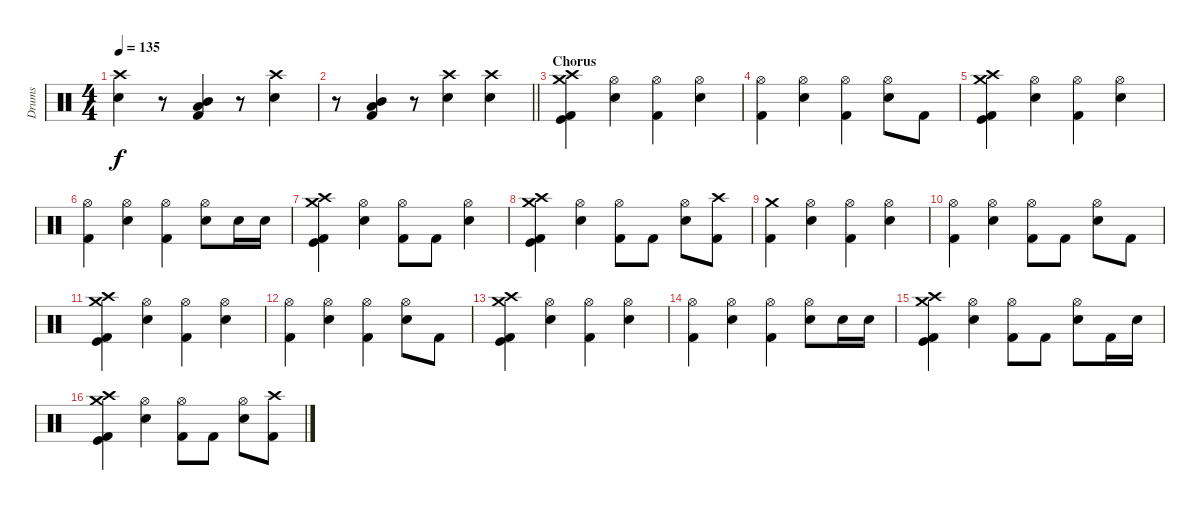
\track ("Drums" "Drums") {instrument percussion}
\staff {score}
\articulation defaults
\ts (4 4)
\tempo 135
\clef neutral
\ks c
("Crash high (hit)" "Snare (hit) 2").4{dy f} r.8 ("Kick (hit) 2" "Mid Tom (hit)" "Low Tom (hit)").4 r.8 ("Crash high (hit)" "Snare (hit) 2").4 |
\barLineRight lightlight
r.8 ("Kick (hit) 2" "Mid Tom (hit)" "Low Tom (hit)").4 r.8 ("Crash high (hit)" "Snare (hit) 2").4 ("Crash high (hit)" "Snare (hit) 2").4 |
\section ("" "Chorus")
("Crash high (hit)" "Crash medium (hit)" "Kick (hit) 2" "Kick (hit)").4 ("Hi-Hat (open)" "Snare (hit) 2").4 ("Hi-Hat (open)" "Kick (hit) 2").4 ("Hi-Hat (open)" "Snare (hit) 2").4 |
("Hi-Hat (open)" "Kick (hit) 2").4 ("Hi-Hat (open)" "Snare (hit) 2").4 ("Hi-Hat (open)" "Kick (hit) 2").4 ("Hi-Hat (open)" "Snare (hit) 2").8 "Kick (hit) 2".8 |
("Crash medium (hit)" "Crash high (hit)" "Kick (hit)" "Kick (hit) 2").4 ("Hi-Hat (open)" "Snare (hit) 2").4 ("Hi-Hat (open)" "Kick (hit) 2").4 ("Hi-Hat (open)" "Snare (hit) 2").4 |
("Hi-Hat (open)" "Kick (hit) 2").4 ("Hi-Hat (open)" "Snare (hit) 2").4 ("Hi-Hat (open)" "Kick (hit) 2").4 ("Hi-Hat (open)" "Snare (hit) 2").8 "Snare (hit) 2".16 "Snare (hit) 2".16 |
("Crash medium (hit)" "Crash high (hit)" "Kick (hit)" "Kick (hit) 2").4 ("Hi-Hat (open)" "Snare (hit) 2").4 ("Hi-Hat (open)" "Kick (hit) 2").8 "Kick (hit) 2".8 ("Hi-Hat (open)" "Snare (hit) 2").4 |
("Crash medium (hit)" "Crash high (hit)" "Kick (hit)" "Kick (hit) 2").4 ("Hi-Hat (open)" "Snare (hit) 2").4 ("Hi-Hat (open)" "Kick (hit) 2").8 "Kick (hit) 2".8 ("Hi-Hat (open)" "Snare (hit) 2").8 ("Crash high (hit)" "Kick (hit) 2").8 |
("Crash medium (hit)" "Kick (hit) 2").4 ("Hi-Hat (open)" "Snare (hit) 2").4 ("Hi-Hat (open)" "Kick (hit) 2").4 ("Hi-Hat (open)" "Snare (hit) 2").4 |
("Hi-Hat (open)" "Kick (hit) 2").4 ("Hi-Hat (open)" "Snare (hit) 2").4 ("Hi-Hat (open)" "Kick (hit) 2").8 "Kick (hit) 2".8 ("Hi-Hat (open)" "Snare (hit) 2").8 "Kick (hit) 2".8 |
("Crash high (hit)" "Crash medium (hit)" "Kick (hit) 2" "Kick (hit)").4 ("Hi-Hat (open)" "Snare (hit) 2").4 ("Hi-Hat (open)" "Kick (hit) 2").4 ("Hi-Hat (open)" "Snare (hit) 2").4 |
("Hi-Hat (open)" "Kick (hit) 2").4 ("Hi-Hat (open)" "Snare (hit) 2").4 ("Hi-Hat (open)" "Kick (hit) 2").4 ("Hi-Hat (open)" "Snare (hit) 2").8 "Kick (hit) 2".8 |
("Crash medium (hit)" "Crash high (hit)" "Kick (hit)" "Kick (hit) 2").4 ("Hi-Hat (open)" "Snare (hit) 2").4 ("Hi-Hat (open)" "Kick (hit) 2").4 ("Hi-Hat (open)" "Snare (hit) 2").4 |
("Hi-Hat (open)" "Kick (hit) 2").4 ("Hi-Hat (open)" "Snare (hit) 2").4 ("Hi-Hat (open)" "Kick (hit) 2").4 ("Hi-Hat (open)" "Snare (hit) 2").8 "Snare (hit) 2".16 "Snare (hit) 2".16 |
("Crash medium (hit)" "Crash high (hit)" "Kick (hit)" "Kick (hit) 2").4 ("Hi-Hat (open)" "Snare (hit) 2").4 ("Hi-Hat (open)" "Kick (hit) 2").8 "Kick (hit) 2".8 ("Hi-Hat (open)" "Snare (hit) 2").8 "Kick (hit) 2".16 "Snare (hit) 2".16 |
("Crash medium (hit)" "Crash high (hit)" "Kick (hit)" "Kick (hit) 2").4 ("Hi-Hat (open)" "Snare (hit) 2").4 ("Hi-Hat (open)" "Kick (hit) 2").8 "Kick (hit) 2".8 ("Hi-Hat (open)" "Snare (hit) 2").8 ("Crash high (hit)" "Kick (hit) 2").8
